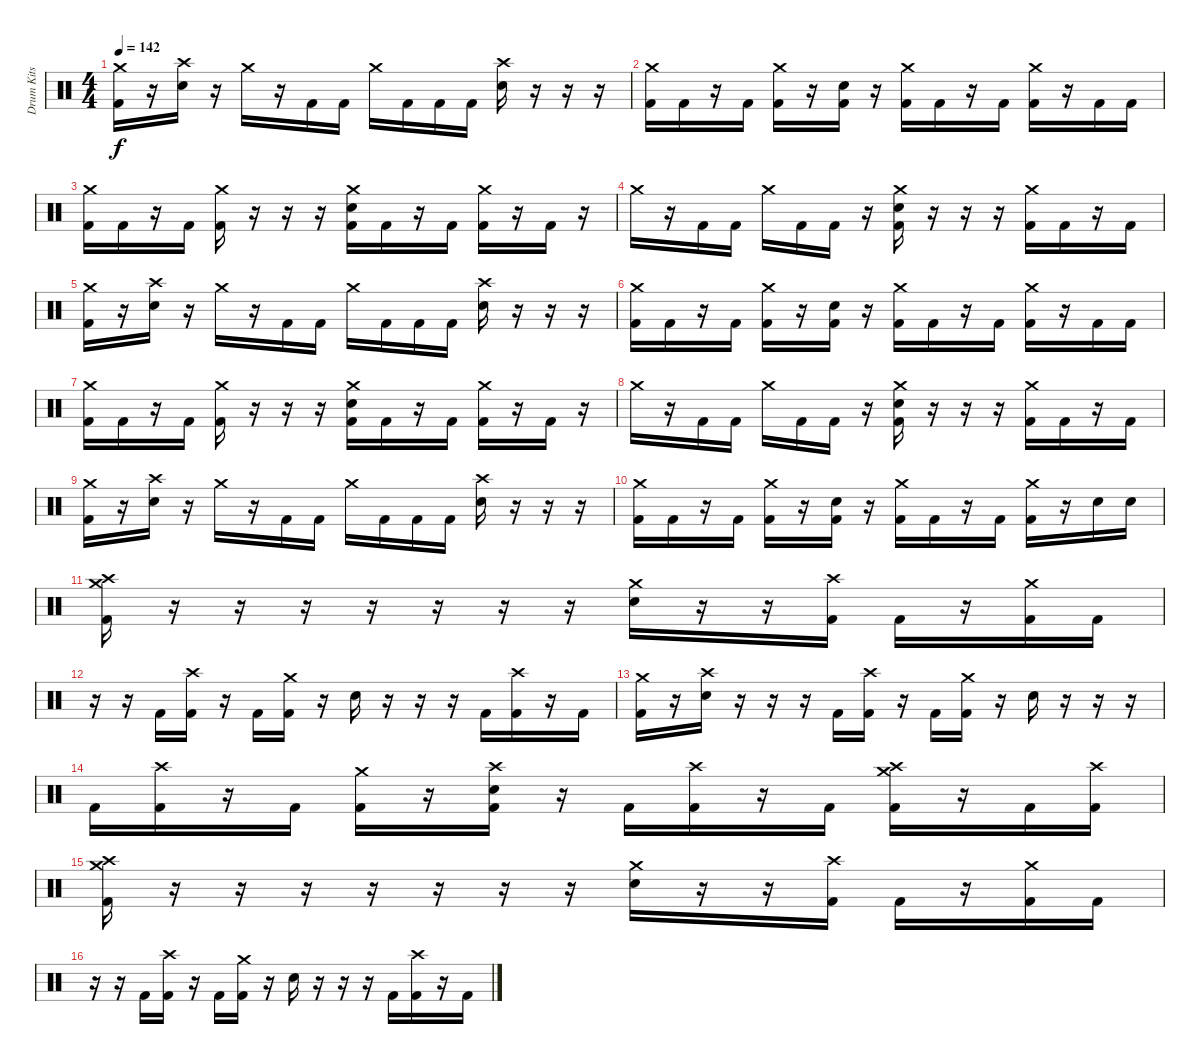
\track ("Drum Kits" "Drum Kits") {instrument percussion}
\staff {score}
\articulation defaults
\ts (4 4)
\tempo 142
\clef neutral
\ks c
("Crash medium (hit)" "Kick (hit) 2").16{dy f} r.16 ("Crash high (hit)" "Electric Snare (hit)").16 r.16 "Crash medium (hit)".16 r.16 "Kick (hit) 2".16 "Kick (hit) 2".16 "Crash medium (hit)".16 "Kick (hit) 2".16 "Kick (hit) 2".16 "Kick (hit) 2".16 ("Crash high (hit)" "Electric Snare (hit)").16 r.16 r.16 r.16 |
("Crash medium (hit)" "Kick (hit) 2").16 "Kick (hit) 2".16 r.16 "Kick (hit) 2".16 ("Crash medium (hit)" "Kick (hit) 2").16 r.16 ("Electric Snare (hit)" "Kick (hit) 2").16 r.16 ("Crash medium (hit)" "Kick (hit) 2").16 "Kick (hit) 2".16 r.16 "Kick (hit) 2".16 ("Crash medium (hit)" "Kick (hit) 2").16 r.16 "Kick (hit) 2".16 "Kick (hit) 2".16 |
("Crash medium (hit)" "Kick (hit) 2").16 "Kick (hit) 2".16 r.16 "Kick (hit) 2".16 ("Crash medium (hit)" "Kick (hit) 2").16 r.16 r.16 r.16 ("Crash medium (hit)" "Electric Snare (hit)" "Kick (hit) 2").16 "Kick (hit) 2".16 r.16 "Kick (hit) 2".16 ("Crash medium (hit)" "Kick (hit) 2").16 r.16 "Kick (hit) 2".16 r.16 |
"Crash medium (hit)".16 r.16 "Kick (hit) 2".16 "Kick (hit) 2".16 "Crash medium (hit)".16 "Kick (hit) 2".16 "Kick (hit) 2".16 r.16 ("Crash medium (hit)" "Electric Snare (hit)" "Kick (hit) 2").16 r.16 r.16 r.16 ("Crash medium (hit)" "Kick (hit) 2").16 "Kick (hit) 2".16 r.16 "Kick (hit) 2".16 |
("Crash medium (hit)" "Kick (hit) 2").16 r.16 ("Crash high (hit)" "Electric Snare (hit)").16 r.16 "Crash medium (hit)".16 r.16 "Kick (hit) 2".16 "Kick (hit) 2".16 "Crash medium (hit)".16 "Kick (hit) 2".16 "Kick (hit) 2".16 "Kick (hit) 2".16 ("Crash high (hit)" "Electric Snare (hit)").16 r.16 r.16 r.16 |
("Crash medium (hit)" "Kick (hit) 2").16 "Kick (hit) 2".16 r.16 "Kick (hit) 2".16 ("Crash medium (hit)" "Kick (hit) 2").16 r.16 ("Electric Snare (hit)" "Kick (hit) 2").16 r.16 ("Crash medium (hit)" "Kick (hit) 2").16 "Kick (hit) 2".16 r.16 "Kick (hit) 2".16 ("Crash medium (hit)" "Kick (hit) 2").16 r.16 "Kick (hit) 2".16 "Kick (hit) 2".16 |
("Crash medium (hit)" "Kick (hit) 2").16 "Kick (hit) 2".16 r.16 "Kick (hit) 2".16 ("Crash medium (hit)" "Kick (hit) 2").16 r.16 r.16 r.16 ("Crash medium (hit)" "Electric Snare (hit)" "Kick (hit) 2").16 "Kick (hit) 2".16 r.16 "Kick (hit) 2".16 ("Crash medium (hit)" "Kick (hit) 2").16 r.16 "Kick (hit) 2".16 r.16 |
"Crash medium (hit)".16 r.16 "Kick (hit) 2".16 "Kick (hit) 2".16 "Crash medium (hit)".16 "Kick (hit) 2".16 "Kick (hit) 2".16 r.16 ("Crash medium (hit)" "Electric Snare (hit)" "Kick (hit) 2").16 r.16 r.16 r.16 ("Crash medium (hit)" "Kick (hit) 2").16 "Kick (hit) 2".16 r.16 "Kick (hit) 2".16 |
("Crash medium (hit)" "Kick (hit) 2").16 r.16 ("Crash high (hit)" "Electric Snare (hit)").16 r.16 "Crash medium (hit)".16 r.16 "Kick (hit) 2".16 "Kick (hit) 2".16 "Crash medium (hit)".16 "Kick (hit) 2".16 "Kick (hit) 2".16 "Kick (hit) 2".16 ("Crash high (hit)" "Electric Snare (hit)").16 r.16 r.16 r.16 |
("Crash medium (hit)" "Kick (hit) 2").16 "Kick (hit) 2".16 r.16 "Kick (hit) 2".16 ("Crash medium (hit)" "Kick (hit) 2").16 r.16 ("Electric Snare (hit)" "Kick (hit) 2").16 r.16 ("Crash medium (hit)" "Kick (hit) 2").16 "Kick (hit) 2".16 r.16 "Kick (hit) 2".16 ("Crash medium (hit)" "Kick (hit) 2").16 r.16 "Electric Snare (hit)".16 "Electric Snare (hit)".16 |
("Crash high (hit)" "Crash medium (hit)" "Kick (hit) 2").16 r.16 r.16 r.16 r.16 r.16 r.16 r.16 ("Crash medium (hit)" "Electric Snare (hit)").16 r.16 r.16 ("Crash high (hit)" "Kick (hit) 2").16 "Kick (hit) 2".16 r.16 ("Crash medium (hit)" "Kick (hit) 2").16 "Kick (hit) 2".16 |
r.16 r.16 "Kick (hit) 2".16 ("Crash high (hit)" "Kick (hit) 2").16 r.16 "Kick (hit) 2".16 ("Crash medium (hit)" "Kick (hit) 2").16 r.16 "Electric Snare (hit)".16 r.16 r.16 r.16 "Kick (hit) 2".16 ("Crash high (hit)" "Kick (hit) 2").16 r.16 "Kick (hit) 2".16 |
("Crash medium (hit)" "Kick (hit) 2").16 r.16 ("Crash high (hit)" "Electric Snare (hit)").16 r.16 r.16 r.16 "Kick (hit) 2".16 ("Crash high (hit)" "Kick (hit) 2").16 r.16 "Kick (hit) 2".16 ("Crash medium (hit)" "Kick (hit) 2").16 r.16 "Electric Snare (hit)".16 r.16 r.16 r.16 |
"Kick (hit) 2".16 ("Crash high (hit)" "Kick (hit) 2").16 r.16 "Kick (hit) 2".16 ("Crash medium (hit)" "Kick (hit) 2").16 r.16 ("Crash high (hit)" "Electric Snare (hit)" "Kick (hit) 2").16 r.16 "Kick (hit) 2".16 ("Crash high (hit)" "Kick (hit) 2").16 r.16 "Kick (hit) 2".16 ("Crash high (hit)" "Crash medium (hit)" "Kick (hit) 2").16 r.16 "Kick (hit) 2".16 ("Crash high (hit)" "Kick (hit) 2").16 |
("Crash high (hit)" "Crash medium (hit)" "Kick (hit) 2").16 r.16 r.16 r.16 r.16 r.16 r.16 r.16 ("Crash medium (hit)" "Electric Snare (hit)").16 r.16 r.16 ("Crash high (hit)" "Kick (hit) 2").16 "Kick (hit) 2".16 r.16 ("Crash medium (hit)" "Kick (hit) 2").16 "Kick (hit) 2".16 |
r.16 r.16 "Kick (hit) 2".16 ("Crash high (hit)" "Kick (hit) 2").16 r.16 "Kick (hit) 2".16 ("Crash medium (hit)" "Kick (hit) 2").16 r.16 "Electric Snare (hit)".16 r.16 r.16 r.16 "Kick (hit) 2".16 ("Crash high (hit)" "Kick (hit) 2").16 r.16 "Kick (hit) 2".16
